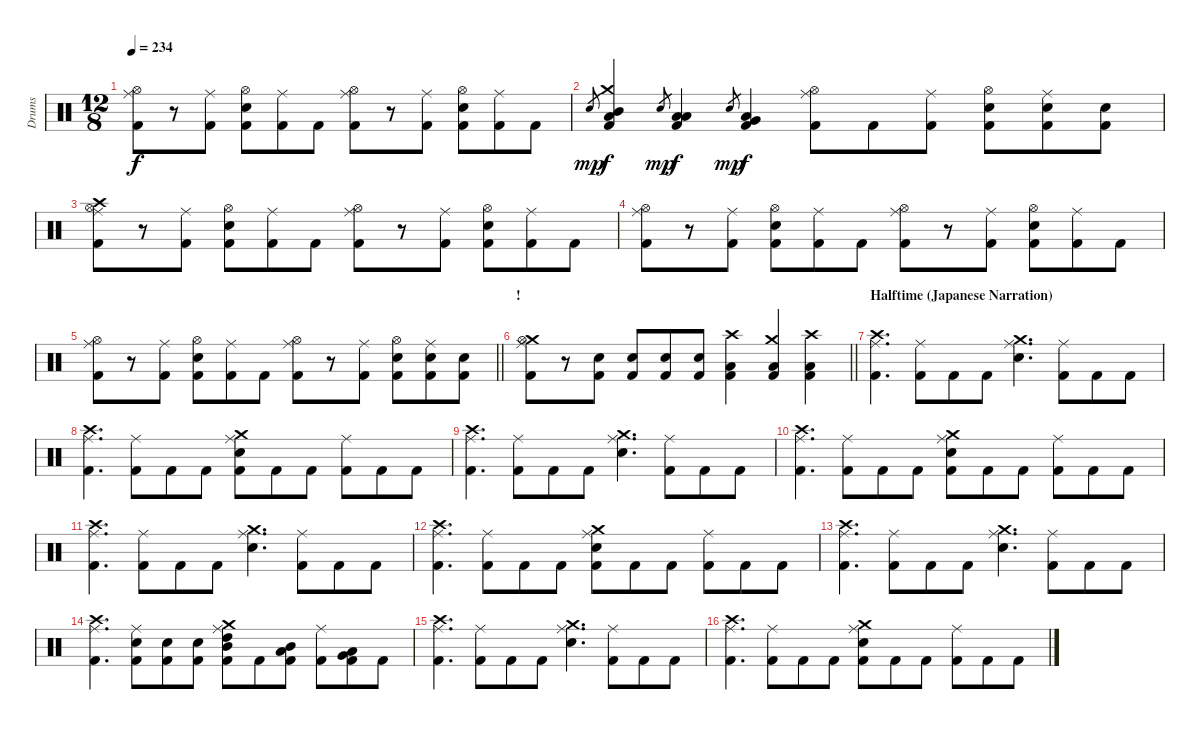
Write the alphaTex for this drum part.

\track ("Drums" "Drums") {instrument percussion}
\staff {score}
\articulation defaults
\ts (12 8)
\tempo 234
\clef neutral
\ks c
("Hi-Hat (open)" "Ride (middle)" "Kick (hit) 2").8{dy f} r.8 ("Ride (middle)" "Kick (hit) 2").8 ("Hi-Hat (open)" "Snare (hit) 2" "Kick (hit) 2").8 ("Ride (middle)" "Kick (hit) 2").8 "Kick (hit) 2".8 ("Hi-Hat (open)" "Ride (middle)" "Kick (hit) 2").8 r.8 ("Ride (middle)" "Kick (hit) 2").8 ("Hi-Hat (open)" "Snare (hit) 2" "Kick (hit) 2").8 ("Ride (middle)" "Kick (hit) 2").8 "Kick (hit) 2".8 |
"Snare (hit)".8{gr dy mp} ("Crash medium (hit)" "Mid Tom (hit)" "Low Floor Tom (hit)" "Kick (hit) 2").4{dy f} "Snare (hit)".8{gr dy mp} ("Low Tom (hit)" "Low Floor Tom (hit)" "Kick (hit) 2").4{dy f} "Snare (hit)".8{gr dy mp} ("Very Low Tom (hit)" "Low Floor Tom (hit)" "Kick (hit) 2").4{dy f} ("Hi-Hat (open)" "Ride (middle)" "Kick (hit) 2").8 "Kick (hit) 2".8 ("Ride (middle)" "Kick (hit) 2").8 ("Hi-Hat (open)" "Snare (hit) 2" "Kick (hit) 2").8 ("Ride (middle)" "Snare (hit) 2" "Kick (hit) 2").8 ("Snare (hit) 2" "Kick (hit) 2").8 |
("Crash high (hit)" "Hi-Hat (open)" "Ride (middle)" "Kick (hit) 2").8 r.8 ("Ride (middle)" "Kick (hit) 2").8 ("Hi-Hat (open)" "Snare (hit) 2" "Kick (hit) 2").8 ("Ride (middle)" "Kick (hit) 2").8 "Kick (hit) 2".8 ("Hi-Hat (open)" "Ride (middle)" "Kick (hit) 2").8 r.8 ("Ride (middle)" "Kick (hit) 2").8 ("Hi-Hat (open)" "Snare (hit) 2" "Kick (hit) 2").8 ("Ride (middle)" "Kick (hit) 2").8 "Kick (hit) 2".8 |
("Hi-Hat (open)" "Ride (middle)" "Kick (hit) 2").8 r.8 ("Ride (middle)" "Kick (hit) 2").8 ("Hi-Hat (open)" "Snare (hit) 2" "Kick (hit) 2").8 ("Ride (middle)" "Kick (hit) 2").8 "Kick (hit) 2".8 ("Hi-Hat (open)" "Ride (middle)" "Kick (hit) 2").8 r.8 ("Ride (middle)" "Kick (hit) 2").8 ("Hi-Hat (open)" "Snare (hit) 2" "Kick (hit) 2").8 ("Ride (middle)" "Kick (hit) 2").8 "Kick (hit) 2".8 |
\barLineRight lightlight
("Hi-Hat (open)" "Ride (middle)" "Kick (hit) 2").8 r.8 ("Ride (middle)" "Kick (hit) 2").8 ("Hi-Hat (open)" "Snare (hit) 2" "Kick (hit) 2").8 ("Ride (middle)" "Kick (hit) 2").8 "Kick (hit) 2".8 ("Hi-Hat (open)" "Ride (middle)" "Kick (hit) 2").8 r.8 ("Ride (middle)" "Kick (hit) 2").8 ("Hi-Hat (open)" "Snare (hit) 2" "Kick (hit) 2").8 ("Ride (middle)" "Snare (hit) 2" "Kick (hit) 2").8 ("Snare (hit) 2" "Kick (hit) 2").8 |
\section ("" "!")
\barLineRight lightlight
("Crash medium (hit)" "Hi-Hat (open)" "Ride (middle)" "Kick (hit) 2").8 r.8 ("Snare (hit) 2" "Kick (hit) 2").8 ("Snare (hit) 2" "Kick (hit) 2").8 ("Snare (hit) 2" "Kick (hit) 2").8 ("Snare (hit) 2" "Kick (hit) 2").8 ("Crash high (hit)" "Low Floor Tom (hit)" "Kick (hit) 2").4 ("Crash medium (hit)" "Low Floor Tom (hit)" "Kick (hit) 2").4 ("Crash high (hit)" "Low Floor Tom (hit)" "Kick (hit) 2").4 |
\section ("" "Halftime (Japanese Narration)")
("Crash high (hit)" "Ride (middle)" "Kick (hit) 2").4{d} ("Ride (middle)" "Kick (hit) 2").8 "Kick (hit) 2".8 "Kick (hit) 2".8 ("Crash medium (hit)" "Ride (middle)" "Snare (hit) 2").4{d} ("Ride (middle)" "Kick (hit) 2").8 "Kick (hit) 2".8 "Kick (hit) 2".8 |
("Crash high (hit)" "Ride (middle)" "Kick (hit) 2").4{d} ("Ride (middle)" "Kick (hit) 2").8 "Kick (hit) 2".8 "Kick (hit) 2".8 ("Ride (middle)" "Crash medium (hit)" "Snare (hit) 2" "Kick (hit) 2").8 "Kick (hit) 2".8 "Kick (hit) 2".8 ("Ride (middle)" "Kick (hit) 2").8 "Kick (hit) 2".8 "Kick (hit) 2".8 |
("Crash high (hit)" "Ride (middle)" "Kick (hit) 2").4{d} ("Ride (middle)" "Kick (hit) 2").8 "Kick (hit) 2".8 "Kick (hit) 2".8 ("Crash medium (hit)" "Ride (middle)" "Snare (hit) 2").4{d} ("Ride (middle)" "Kick (hit) 2").8 "Kick (hit) 2".8 "Kick (hit) 2".8 |
("Crash high (hit)" "Ride (middle)" "Kick (hit) 2").4{d} ("Ride (middle)" "Kick (hit) 2").8 "Kick (hit) 2".8 "Kick (hit) 2".8 ("Ride (middle)" "Crash medium (hit)" "Snare (hit) 2" "Kick (hit) 2").8 "Kick (hit) 2".8 "Kick (hit) 2".8 ("Ride (middle)" "Kick (hit) 2").8 "Kick (hit) 2".8 "Kick (hit) 2".8 |
("Crash high (hit)" "Ride (middle)" "Kick (hit) 2").4{d} ("Ride (middle)" "Kick (hit) 2").8 "Kick (hit) 2".8 "Kick (hit) 2".8 ("Crash medium (hit)" "Ride (middle)" "Snare (hit) 2").4{d} ("Ride (middle)" "Kick (hit) 2").8 "Kick (hit) 2".8 "Kick (hit) 2".8 |
("Crash high (hit)" "Ride (middle)" "Kick (hit) 2").4{d} ("Ride (middle)" "Kick (hit) 2").8 "Kick (hit) 2".8 "Kick (hit) 2".8 ("Ride (middle)" "Crash medium (hit)" "Snare (hit) 2" "Kick (hit) 2").8 "Kick (hit) 2".8 "Kick (hit) 2".8 ("Ride (middle)" "Kick (hit) 2").8 "Kick (hit) 2".8 "Kick (hit) 2".8 |
("Crash high (hit)" "Ride (middle)" "Kick (hit) 2").4{d} ("Ride (middle)" "Kick (hit) 2").8 "Kick (hit) 2".8 "Kick (hit) 2".8 ("Crash medium (hit)" "Ride (middle)" "Snare (hit) 2").4{d} ("Ride (middle)" "Kick (hit) 2").8 "Kick (hit) 2".8 "Kick (hit) 2".8 |
("Crash high (hit)" "Ride (middle)" "Kick (hit) 2").4{d} ("Ride (middle)" "Snare (hit) 2" "Kick (hit) 2").8 ("Snare (hit) 2" "Kick (hit) 2").8 ("Snare (hit) 2" "Kick (hit) 2").8 ("Ride (middle)" "Crash medium (hit)" "Mid Tom (hit)" "High Tom (hit)" "Kick (hit) 2").8 "Kick (hit) 2".8 ("Low Tom (hit)" "Mid Tom (hit)" "Kick (hit) 2").8 ("Ride (middle)" "Kick (hit) 2").8 ("Very Low Tom (hit)" "Low Tom (hit)" "Kick (hit) 2").8 "Kick (hit) 2".8 |
("Crash high (hit)" "Ride (middle)" "Kick (hit) 2").4{d} ("Ride (middle)" "Kick (hit) 2").8 "Kick (hit) 2".8 "Kick (hit) 2".8 ("Crash medium (hit)" "Ride (middle)" "Snare (hit) 2").4{d} ("Ride (middle)" "Kick (hit) 2").8 "Kick (hit) 2".8 "Kick (hit) 2".8 |
("Crash high (hit)" "Ride (middle)" "Kick (hit) 2").4{d} ("Ride (middle)" "Kick (hit) 2").8 "Kick (hit) 2".8 "Kick (hit) 2".8 ("Ride (middle)" "Crash medium (hit)" "Snare (hit) 2" "Kick (hit) 2").8 "Kick (hit) 2".8 "Kick (hit) 2".8 ("Ride (middle)" "Kick (hit) 2").8 "Kick (hit) 2".8 "Kick (hit) 2".8
